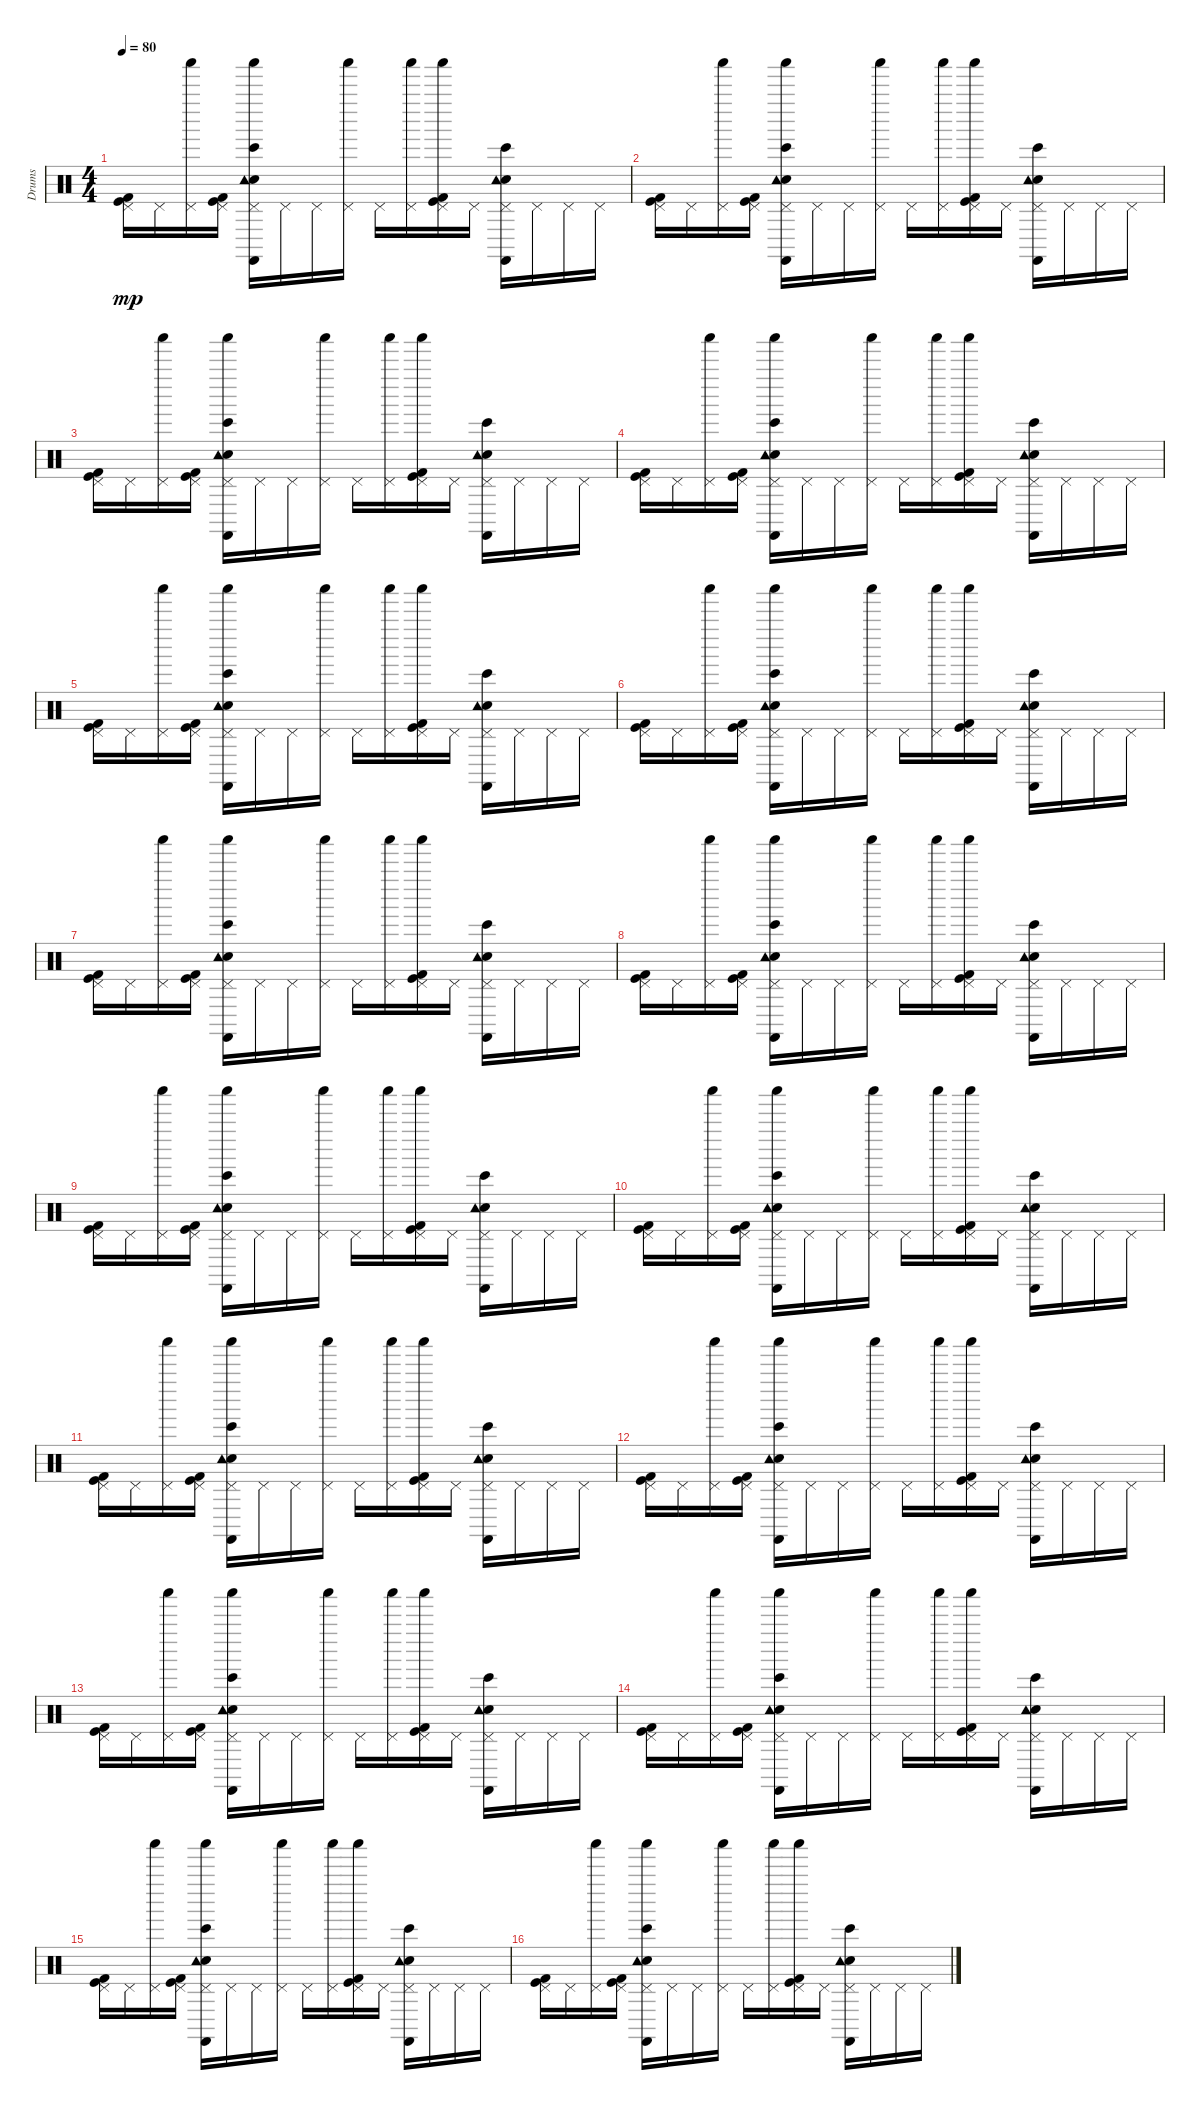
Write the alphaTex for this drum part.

\track ("Drums" "Drums") {instrument percussion}
\staff {score}
\articulation defaults
\ts (4 4)
\tempo 80
\clef neutral
\ks c
("Kick (hit)" "Kick (hit) 2" "Pedal Hi-Hat (hit)").16{dy mp} "Pedal Hi-Hat (hit)".16 ("Shaker (hit)" "Pedal Hi-Hat (hit)").16 ("Kick (hit)" "Kick (hit) 2" "Pedal Hi-Hat (hit)").16 ("Castanets (hit)" "Hand Clap (hit)" "Shaker (hit)" "Tambourine (hit)" "Bongo High (hit)" "Pedal Hi-Hat (hit)").16 "Pedal Hi-Hat (hit)".16 "Pedal Hi-Hat (hit)".16 ("Shaker (hit)" "Pedal Hi-Hat (hit)").16 "Pedal Hi-Hat (hit)".16 ("Shaker (hit)" "Pedal Hi-Hat (hit)").16 ("Kick (hit)" "Kick (hit) 2" "Shaker (hit)" "Pedal Hi-Hat (hit)").16 "Pedal Hi-Hat (hit)".16 ("Castanets (hit)" "Hand Clap (hit)" "Tambourine (hit)" "Bongo High (hit)" "Pedal Hi-Hat (hit)").16 "Pedal Hi-Hat (hit)".16 "Pedal Hi-Hat (hit)".16 "Pedal Hi-Hat (hit)".16 |
("Kick (hit)" "Kick (hit) 2" "Pedal Hi-Hat (hit)").16 "Pedal Hi-Hat (hit)".16 ("Shaker (hit)" "Pedal Hi-Hat (hit)").16 ("Kick (hit)" "Kick (hit) 2" "Pedal Hi-Hat (hit)").16 ("Castanets (hit)" "Hand Clap (hit)" "Shaker (hit)" "Tambourine (hit)" "Bongo High (hit)" "Pedal Hi-Hat (hit)").16 "Pedal Hi-Hat (hit)".16 "Pedal Hi-Hat (hit)".16 ("Shaker (hit)" "Pedal Hi-Hat (hit)").16 "Pedal Hi-Hat (hit)".16 ("Shaker (hit)" "Pedal Hi-Hat (hit)").16 ("Kick (hit)" "Kick (hit) 2" "Shaker (hit)" "Pedal Hi-Hat (hit)").16 "Pedal Hi-Hat (hit)".16 ("Castanets (hit)" "Hand Clap (hit)" "Tambourine (hit)" "Bongo High (hit)" "Pedal Hi-Hat (hit)").16 "Pedal Hi-Hat (hit)".16 "Pedal Hi-Hat (hit)".16 "Pedal Hi-Hat (hit)".16 |
("Kick (hit)" "Kick (hit) 2" "Pedal Hi-Hat (hit)").16 "Pedal Hi-Hat (hit)".16 ("Shaker (hit)" "Pedal Hi-Hat (hit)").16 ("Kick (hit)" "Kick (hit) 2" "Pedal Hi-Hat (hit)").16 ("Castanets (hit)" "Hand Clap (hit)" "Shaker (hit)" "Tambourine (hit)" "Bongo High (hit)" "Pedal Hi-Hat (hit)").16 "Pedal Hi-Hat (hit)".16 "Pedal Hi-Hat (hit)".16 ("Shaker (hit)" "Pedal Hi-Hat (hit)").16 "Pedal Hi-Hat (hit)".16 ("Shaker (hit)" "Pedal Hi-Hat (hit)").16 ("Kick (hit)" "Kick (hit) 2" "Shaker (hit)" "Pedal Hi-Hat (hit)").16 "Pedal Hi-Hat (hit)".16 ("Castanets (hit)" "Hand Clap (hit)" "Tambourine (hit)" "Bongo High (hit)" "Pedal Hi-Hat (hit)").16 "Pedal Hi-Hat (hit)".16 "Pedal Hi-Hat (hit)".16 "Pedal Hi-Hat (hit)".16 |
("Kick (hit)" "Kick (hit) 2" "Pedal Hi-Hat (hit)").16 "Pedal Hi-Hat (hit)".16 ("Shaker (hit)" "Pedal Hi-Hat (hit)").16 ("Kick (hit)" "Kick (hit) 2" "Pedal Hi-Hat (hit)").16 ("Castanets (hit)" "Hand Clap (hit)" "Shaker (hit)" "Tambourine (hit)" "Bongo High (hit)" "Pedal Hi-Hat (hit)").16 "Pedal Hi-Hat (hit)".16 "Pedal Hi-Hat (hit)".16 ("Shaker (hit)" "Pedal Hi-Hat (hit)").16 "Pedal Hi-Hat (hit)".16 ("Shaker (hit)" "Pedal Hi-Hat (hit)").16 ("Kick (hit)" "Kick (hit) 2" "Shaker (hit)" "Pedal Hi-Hat (hit)").16 "Pedal Hi-Hat (hit)".16 ("Castanets (hit)" "Hand Clap (hit)" "Tambourine (hit)" "Bongo High (hit)" "Pedal Hi-Hat (hit)").16 "Pedal Hi-Hat (hit)".16 "Pedal Hi-Hat (hit)".16 "Pedal Hi-Hat (hit)".16 |
("Kick (hit)" "Kick (hit) 2" "Pedal Hi-Hat (hit)").16 "Pedal Hi-Hat (hit)".16 ("Shaker (hit)" "Pedal Hi-Hat (hit)").16 ("Kick (hit)" "Kick (hit) 2" "Pedal Hi-Hat (hit)").16 ("Castanets (hit)" "Hand Clap (hit)" "Shaker (hit)" "Tambourine (hit)" "Bongo High (hit)" "Pedal Hi-Hat (hit)").16 "Pedal Hi-Hat (hit)".16 "Pedal Hi-Hat (hit)".16 ("Shaker (hit)" "Pedal Hi-Hat (hit)").16 "Pedal Hi-Hat (hit)".16 ("Shaker (hit)" "Pedal Hi-Hat (hit)").16 ("Kick (hit)" "Kick (hit) 2" "Shaker (hit)" "Pedal Hi-Hat (hit)").16 "Pedal Hi-Hat (hit)".16 ("Castanets (hit)" "Hand Clap (hit)" "Tambourine (hit)" "Bongo High (hit)" "Pedal Hi-Hat (hit)").16 "Pedal Hi-Hat (hit)".16 "Pedal Hi-Hat (hit)".16 "Pedal Hi-Hat (hit)".16 |
("Kick (hit)" "Kick (hit) 2" "Pedal Hi-Hat (hit)").16 "Pedal Hi-Hat (hit)".16 ("Shaker (hit)" "Pedal Hi-Hat (hit)").16 ("Kick (hit)" "Kick (hit) 2" "Pedal Hi-Hat (hit)").16 ("Castanets (hit)" "Hand Clap (hit)" "Shaker (hit)" "Tambourine (hit)" "Bongo High (hit)" "Pedal Hi-Hat (hit)").16 "Pedal Hi-Hat (hit)".16 "Pedal Hi-Hat (hit)".16 ("Shaker (hit)" "Pedal Hi-Hat (hit)").16 "Pedal Hi-Hat (hit)".16 ("Shaker (hit)" "Pedal Hi-Hat (hit)").16 ("Kick (hit)" "Kick (hit) 2" "Shaker (hit)" "Pedal Hi-Hat (hit)").16 "Pedal Hi-Hat (hit)".16 ("Castanets (hit)" "Hand Clap (hit)" "Tambourine (hit)" "Bongo High (hit)" "Pedal Hi-Hat (hit)").16 "Pedal Hi-Hat (hit)".16 "Pedal Hi-Hat (hit)".16 "Pedal Hi-Hat (hit)".16 |
("Kick (hit)" "Kick (hit) 2" "Pedal Hi-Hat (hit)").16 "Pedal Hi-Hat (hit)".16 ("Shaker (hit)" "Pedal Hi-Hat (hit)").16 ("Kick (hit)" "Kick (hit) 2" "Pedal Hi-Hat (hit)").16 ("Castanets (hit)" "Hand Clap (hit)" "Shaker (hit)" "Tambourine (hit)" "Bongo High (hit)" "Pedal Hi-Hat (hit)").16 "Pedal Hi-Hat (hit)".16 "Pedal Hi-Hat (hit)".16 ("Shaker (hit)" "Pedal Hi-Hat (hit)").16 "Pedal Hi-Hat (hit)".16 ("Shaker (hit)" "Pedal Hi-Hat (hit)").16 ("Kick (hit)" "Kick (hit) 2" "Shaker (hit)" "Pedal Hi-Hat (hit)").16 "Pedal Hi-Hat (hit)".16 ("Castanets (hit)" "Hand Clap (hit)" "Tambourine (hit)" "Bongo High (hit)" "Pedal Hi-Hat (hit)").16 "Pedal Hi-Hat (hit)".16 "Pedal Hi-Hat (hit)".16 "Pedal Hi-Hat (hit)".16 |
("Kick (hit)" "Kick (hit) 2" "Pedal Hi-Hat (hit)").16 "Pedal Hi-Hat (hit)".16 ("Shaker (hit)" "Pedal Hi-Hat (hit)").16 ("Kick (hit)" "Kick (hit) 2" "Pedal Hi-Hat (hit)").16 ("Castanets (hit)" "Hand Clap (hit)" "Shaker (hit)" "Tambourine (hit)" "Bongo High (hit)" "Pedal Hi-Hat (hit)").16 "Pedal Hi-Hat (hit)".16 "Pedal Hi-Hat (hit)".16 ("Shaker (hit)" "Pedal Hi-Hat (hit)").16 "Pedal Hi-Hat (hit)".16 ("Shaker (hit)" "Pedal Hi-Hat (hit)").16 ("Kick (hit)" "Kick (hit) 2" "Shaker (hit)" "Pedal Hi-Hat (hit)").16 "Pedal Hi-Hat (hit)".16 ("Castanets (hit)" "Hand Clap (hit)" "Tambourine (hit)" "Bongo High (hit)" "Pedal Hi-Hat (hit)").16 "Pedal Hi-Hat (hit)".16 "Pedal Hi-Hat (hit)".16 "Pedal Hi-Hat (hit)".16 |
("Kick (hit)" "Kick (hit) 2" "Pedal Hi-Hat (hit)").16 "Pedal Hi-Hat (hit)".16 ("Shaker (hit)" "Pedal Hi-Hat (hit)").16 ("Kick (hit)" "Kick (hit) 2" "Pedal Hi-Hat (hit)").16 ("Castanets (hit)" "Hand Clap (hit)" "Shaker (hit)" "Tambourine (hit)" "Bongo High (hit)" "Pedal Hi-Hat (hit)").16 "Pedal Hi-Hat (hit)".16 "Pedal Hi-Hat (hit)".16 ("Shaker (hit)" "Pedal Hi-Hat (hit)").16 "Pedal Hi-Hat (hit)".16 ("Shaker (hit)" "Pedal Hi-Hat (hit)").16 ("Kick (hit)" "Kick (hit) 2" "Shaker (hit)" "Pedal Hi-Hat (hit)").16 "Pedal Hi-Hat (hit)".16 ("Castanets (hit)" "Hand Clap (hit)" "Tambourine (hit)" "Bongo High (hit)" "Pedal Hi-Hat (hit)").16 "Pedal Hi-Hat (hit)".16 "Pedal Hi-Hat (hit)".16 "Pedal Hi-Hat (hit)".16 |
("Kick (hit)" "Kick (hit) 2" "Pedal Hi-Hat (hit)").16 "Pedal Hi-Hat (hit)".16 ("Shaker (hit)" "Pedal Hi-Hat (hit)").16 ("Kick (hit)" "Kick (hit) 2" "Pedal Hi-Hat (hit)").16 ("Castanets (hit)" "Hand Clap (hit)" "Shaker (hit)" "Tambourine (hit)" "Bongo High (hit)" "Pedal Hi-Hat (hit)").16 "Pedal Hi-Hat (hit)".16 "Pedal Hi-Hat (hit)".16 ("Shaker (hit)" "Pedal Hi-Hat (hit)").16 "Pedal Hi-Hat (hit)".16 ("Shaker (hit)" "Pedal Hi-Hat (hit)").16 ("Kick (hit)" "Kick (hit) 2" "Shaker (hit)" "Pedal Hi-Hat (hit)").16 "Pedal Hi-Hat (hit)".16 ("Castanets (hit)" "Hand Clap (hit)" "Tambourine (hit)" "Bongo High (hit)" "Pedal Hi-Hat (hit)").16 "Pedal Hi-Hat (hit)".16 "Pedal Hi-Hat (hit)".16 "Pedal Hi-Hat (hit)".16 |
("Kick (hit)" "Kick (hit) 2" "Pedal Hi-Hat (hit)").16 "Pedal Hi-Hat (hit)".16 ("Shaker (hit)" "Pedal Hi-Hat (hit)").16 ("Kick (hit)" "Kick (hit) 2" "Pedal Hi-Hat (hit)").16 ("Castanets (hit)" "Hand Clap (hit)" "Shaker (hit)" "Tambourine (hit)" "Bongo High (hit)" "Pedal Hi-Hat (hit)").16 "Pedal Hi-Hat (hit)".16 "Pedal Hi-Hat (hit)".16 ("Shaker (hit)" "Pedal Hi-Hat (hit)").16 "Pedal Hi-Hat (hit)".16 ("Shaker (hit)" "Pedal Hi-Hat (hit)").16 ("Kick (hit)" "Kick (hit) 2" "Shaker (hit)" "Pedal Hi-Hat (hit)").16 "Pedal Hi-Hat (hit)".16 ("Castanets (hit)" "Hand Clap (hit)" "Tambourine (hit)" "Bongo High (hit)" "Pedal Hi-Hat (hit)").16 "Pedal Hi-Hat (hit)".16 "Pedal Hi-Hat (hit)".16 "Pedal Hi-Hat (hit)".16 |
("Kick (hit)" "Kick (hit) 2" "Pedal Hi-Hat (hit)").16 "Pedal Hi-Hat (hit)".16 ("Shaker (hit)" "Pedal Hi-Hat (hit)").16 ("Kick (hit)" "Kick (hit) 2" "Pedal Hi-Hat (hit)").16 ("Castanets (hit)" "Hand Clap (hit)" "Shaker (hit)" "Tambourine (hit)" "Bongo High (hit)" "Pedal Hi-Hat (hit)").16 "Pedal Hi-Hat (hit)".16 "Pedal Hi-Hat (hit)".16 ("Shaker (hit)" "Pedal Hi-Hat (hit)").16 "Pedal Hi-Hat (hit)".16 ("Shaker (hit)" "Pedal Hi-Hat (hit)").16 ("Kick (hit)" "Kick (hit) 2" "Shaker (hit)" "Pedal Hi-Hat (hit)").16 "Pedal Hi-Hat (hit)".16 ("Castanets (hit)" "Hand Clap (hit)" "Tambourine (hit)" "Bongo High (hit)" "Pedal Hi-Hat (hit)").16 "Pedal Hi-Hat (hit)".16 "Pedal Hi-Hat (hit)".16 "Pedal Hi-Hat (hit)".16 |
("Kick (hit)" "Kick (hit) 2" "Pedal Hi-Hat (hit)").16 "Pedal Hi-Hat (hit)".16 ("Shaker (hit)" "Pedal Hi-Hat (hit)").16 ("Kick (hit)" "Kick (hit) 2" "Pedal Hi-Hat (hit)").16 ("Castanets (hit)" "Hand Clap (hit)" "Shaker (hit)" "Tambourine (hit)" "Bongo High (hit)" "Pedal Hi-Hat (hit)").16 "Pedal Hi-Hat (hit)".16 "Pedal Hi-Hat (hit)".16 ("Shaker (hit)" "Pedal Hi-Hat (hit)").16 "Pedal Hi-Hat (hit)".16 ("Shaker (hit)" "Pedal Hi-Hat (hit)").16 ("Kick (hit)" "Kick (hit) 2" "Shaker (hit)" "Pedal Hi-Hat (hit)").16 "Pedal Hi-Hat (hit)".16 ("Castanets (hit)" "Hand Clap (hit)" "Tambourine (hit)" "Bongo High (hit)" "Pedal Hi-Hat (hit)").16 "Pedal Hi-Hat (hit)".16 "Pedal Hi-Hat (hit)".16 "Pedal Hi-Hat (hit)".16 |
("Kick (hit)" "Kick (hit) 2" "Pedal Hi-Hat (hit)").16 "Pedal Hi-Hat (hit)".16 ("Shaker (hit)" "Pedal Hi-Hat (hit)").16 ("Kick (hit)" "Kick (hit) 2" "Pedal Hi-Hat (hit)").16 ("Castanets (hit)" "Hand Clap (hit)" "Shaker (hit)" "Tambourine (hit)" "Bongo High (hit)" "Pedal Hi-Hat (hit)").16 "Pedal Hi-Hat (hit)".16 "Pedal Hi-Hat (hit)".16 ("Shaker (hit)" "Pedal Hi-Hat (hit)").16 "Pedal Hi-Hat (hit)".16 ("Shaker (hit)" "Pedal Hi-Hat (hit)").16 ("Kick (hit)" "Kick (hit) 2" "Shaker (hit)" "Pedal Hi-Hat (hit)").16 "Pedal Hi-Hat (hit)".16 ("Castanets (hit)" "Hand Clap (hit)" "Tambourine (hit)" "Bongo High (hit)" "Pedal Hi-Hat (hit)").16 "Pedal Hi-Hat (hit)".16 "Pedal Hi-Hat (hit)".16 "Pedal Hi-Hat (hit)".16 |
("Kick (hit)" "Kick (hit) 2" "Pedal Hi-Hat (hit)").16 "Pedal Hi-Hat (hit)".16 ("Shaker (hit)" "Pedal Hi-Hat (hit)").16 ("Kick (hit)" "Kick (hit) 2" "Pedal Hi-Hat (hit)").16 ("Castanets (hit)" "Hand Clap (hit)" "Shaker (hit)" "Tambourine (hit)" "Bongo High (hit)" "Pedal Hi-Hat (hit)").16 "Pedal Hi-Hat (hit)".16 "Pedal Hi-Hat (hit)".16 ("Shaker (hit)" "Pedal Hi-Hat (hit)").16 "Pedal Hi-Hat (hit)".16 ("Shaker (hit)" "Pedal Hi-Hat (hit)").16 ("Kick (hit)" "Kick (hit) 2" "Shaker (hit)" "Pedal Hi-Hat (hit)").16 "Pedal Hi-Hat (hit)".16 ("Castanets (hit)" "Hand Clap (hit)" "Tambourine (hit)" "Bongo High (hit)" "Pedal Hi-Hat (hit)").16 "Pedal Hi-Hat (hit)".16 "Pedal Hi-Hat (hit)".16 "Pedal Hi-Hat (hit)".16 |
("Kick (hit)" "Kick (hit) 2" "Pedal Hi-Hat (hit)").16 "Pedal Hi-Hat (hit)".16 ("Shaker (hit)" "Pedal Hi-Hat (hit)").16 ("Kick (hit)" "Kick (hit) 2" "Pedal Hi-Hat (hit)").16 ("Castanets (hit)" "Hand Clap (hit)" "Shaker (hit)" "Tambourine (hit)" "Bongo High (hit)" "Pedal Hi-Hat (hit)").16 "Pedal Hi-Hat (hit)".16 "Pedal Hi-Hat (hit)".16 ("Shaker (hit)" "Pedal Hi-Hat (hit)").16 "Pedal Hi-Hat (hit)".16 ("Shaker (hit)" "Pedal Hi-Hat (hit)").16 ("Kick (hit)" "Kick (hit) 2" "Shaker (hit)" "Pedal Hi-Hat (hit)").16 "Pedal Hi-Hat (hit)".16 ("Castanets (hit)" "Hand Clap (hit)" "Tambourine (hit)" "Bongo High (hit)" "Pedal Hi-Hat (hit)").16 "Pedal Hi-Hat (hit)".16 "Pedal Hi-Hat (hit)".16 "Pedal Hi-Hat (hit)".16
